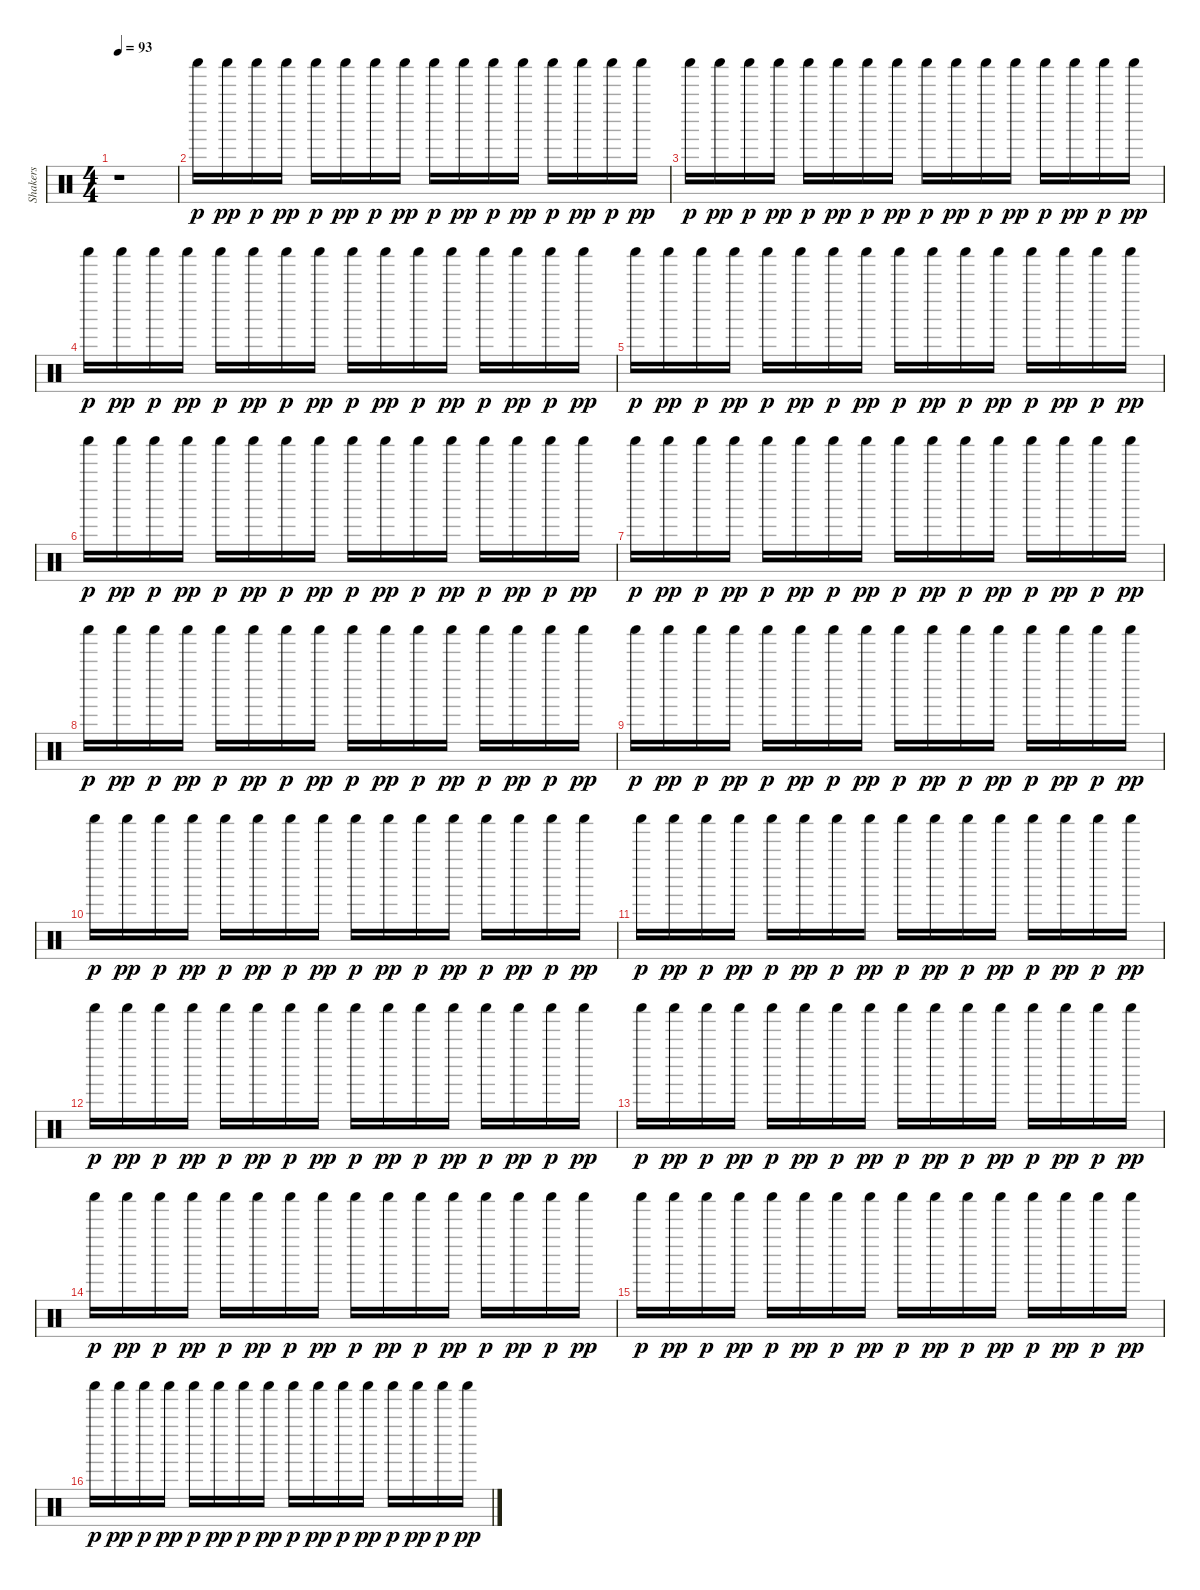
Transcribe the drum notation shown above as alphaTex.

\track ("Shakers" "Shakers") {instrument percussion}
\staff {score}
\articulation defaults
\ts (4 4)
\tempo 93
\clef neutral
\ks c
r.1{dy p} |
"Shaker (hit)".16 "Shaker (hit)".16{dy pp} "Shaker (hit)".16{dy p} "Shaker (hit)".16{dy pp} "Shaker (hit)".16{dy p} "Shaker (hit)".16{dy pp} "Shaker (hit)".16{dy p} "Shaker (hit)".16{dy pp} "Shaker (hit)".16{dy p} "Shaker (hit)".16{dy pp} "Shaker (hit)".16{dy p} "Shaker (hit)".16{dy pp} "Shaker (hit)".16{dy p} "Shaker (hit)".16{dy pp} "Shaker (hit)".16{dy p} "Shaker (hit)".16{dy pp} |
"Shaker (hit)".16{dy p} "Shaker (hit)".16{dy pp} "Shaker (hit)".16{dy p} "Shaker (hit)".16{dy pp} "Shaker (hit)".16{dy p} "Shaker (hit)".16{dy pp} "Shaker (hit)".16{dy p} "Shaker (hit)".16{dy pp} "Shaker (hit)".16{dy p} "Shaker (hit)".16{dy pp} "Shaker (hit)".16{dy p} "Shaker (hit)".16{dy pp} "Shaker (hit)".16{dy p} "Shaker (hit)".16{dy pp} "Shaker (hit)".16{dy p} "Shaker (hit)".16{dy pp} |
"Shaker (hit)".16{dy p} "Shaker (hit)".16{dy pp} "Shaker (hit)".16{dy p} "Shaker (hit)".16{dy pp} "Shaker (hit)".16{dy p} "Shaker (hit)".16{dy pp} "Shaker (hit)".16{dy p} "Shaker (hit)".16{dy pp} "Shaker (hit)".16{dy p} "Shaker (hit)".16{dy pp} "Shaker (hit)".16{dy p} "Shaker (hit)".16{dy pp} "Shaker (hit)".16{dy p} "Shaker (hit)".16{dy pp} "Shaker (hit)".16{dy p} "Shaker (hit)".16{dy pp} |
"Shaker (hit)".16{dy p} "Shaker (hit)".16{dy pp} "Shaker (hit)".16{dy p} "Shaker (hit)".16{dy pp} "Shaker (hit)".16{dy p} "Shaker (hit)".16{dy pp} "Shaker (hit)".16{dy p} "Shaker (hit)".16{dy pp} "Shaker (hit)".16{dy p} "Shaker (hit)".16{dy pp} "Shaker (hit)".16{dy p} "Shaker (hit)".16{dy pp} "Shaker (hit)".16{dy p} "Shaker (hit)".16{dy pp} "Shaker (hit)".16{dy p} "Shaker (hit)".16{dy pp} |
"Shaker (hit)".16{dy p} "Shaker (hit)".16{dy pp} "Shaker (hit)".16{dy p} "Shaker (hit)".16{dy pp} "Shaker (hit)".16{dy p} "Shaker (hit)".16{dy pp} "Shaker (hit)".16{dy p} "Shaker (hit)".16{dy pp} "Shaker (hit)".16{dy p} "Shaker (hit)".16{dy pp} "Shaker (hit)".16{dy p} "Shaker (hit)".16{dy pp} "Shaker (hit)".16{dy p} "Shaker (hit)".16{dy pp} "Shaker (hit)".16{dy p} "Shaker (hit)".16{dy pp} |
"Shaker (hit)".16{dy p} "Shaker (hit)".16{dy pp} "Shaker (hit)".16{dy p} "Shaker (hit)".16{dy pp} "Shaker (hit)".16{dy p} "Shaker (hit)".16{dy pp} "Shaker (hit)".16{dy p} "Shaker (hit)".16{dy pp} "Shaker (hit)".16{dy p} "Shaker (hit)".16{dy pp} "Shaker (hit)".16{dy p} "Shaker (hit)".16{dy pp} "Shaker (hit)".16{dy p} "Shaker (hit)".16{dy pp} "Shaker (hit)".16{dy p} "Shaker (hit)".16{dy pp} |
"Shaker (hit)".16{dy p} "Shaker (hit)".16{dy pp} "Shaker (hit)".16{dy p} "Shaker (hit)".16{dy pp} "Shaker (hit)".16{dy p} "Shaker (hit)".16{dy pp} "Shaker (hit)".16{dy p} "Shaker (hit)".16{dy pp} "Shaker (hit)".16{dy p} "Shaker (hit)".16{dy pp} "Shaker (hit)".16{dy p} "Shaker (hit)".16{dy pp} "Shaker (hit)".16{dy p} "Shaker (hit)".16{dy pp} "Shaker (hit)".16{dy p} "Shaker (hit)".16{dy pp} |
"Shaker (hit)".16{dy p} "Shaker (hit)".16{dy pp} "Shaker (hit)".16{dy p} "Shaker (hit)".16{dy pp} "Shaker (hit)".16{dy p} "Shaker (hit)".16{dy pp} "Shaker (hit)".16{dy p} "Shaker (hit)".16{dy pp} "Shaker (hit)".16{dy p} "Shaker (hit)".16{dy pp} "Shaker (hit)".16{dy p} "Shaker (hit)".16{dy pp} "Shaker (hit)".16{dy p} "Shaker (hit)".16{dy pp} "Shaker (hit)".16{dy p} "Shaker (hit)".16{dy pp} |
"Shaker (hit)".16{dy p} "Shaker (hit)".16{dy pp} "Shaker (hit)".16{dy p} "Shaker (hit)".16{dy pp} "Shaker (hit)".16{dy p} "Shaker (hit)".16{dy pp} "Shaker (hit)".16{dy p} "Shaker (hit)".16{dy pp} "Shaker (hit)".16{dy p} "Shaker (hit)".16{dy pp} "Shaker (hit)".16{dy p} "Shaker (hit)".16{dy pp} "Shaker (hit)".16{dy p} "Shaker (hit)".16{dy pp} "Shaker (hit)".16{dy p} "Shaker (hit)".16{dy pp} |
"Shaker (hit)".16{dy p} "Shaker (hit)".16{dy pp} "Shaker (hit)".16{dy p} "Shaker (hit)".16{dy pp} "Shaker (hit)".16{dy p} "Shaker (hit)".16{dy pp} "Shaker (hit)".16{dy p} "Shaker (hit)".16{dy pp} "Shaker (hit)".16{dy p} "Shaker (hit)".16{dy pp} "Shaker (hit)".16{dy p} "Shaker (hit)".16{dy pp} "Shaker (hit)".16{dy p} "Shaker (hit)".16{dy pp} "Shaker (hit)".16{dy p} "Shaker (hit)".16{dy pp} |
"Shaker (hit)".16{dy p} "Shaker (hit)".16{dy pp} "Shaker (hit)".16{dy p} "Shaker (hit)".16{dy pp} "Shaker (hit)".16{dy p} "Shaker (hit)".16{dy pp} "Shaker (hit)".16{dy p} "Shaker (hit)".16{dy pp} "Shaker (hit)".16{dy p} "Shaker (hit)".16{dy pp} "Shaker (hit)".16{dy p} "Shaker (hit)".16{dy pp} "Shaker (hit)".16{dy p} "Shaker (hit)".16{dy pp} "Shaker (hit)".16{dy p} "Shaker (hit)".16{dy pp} |
"Shaker (hit)".16{dy p} "Shaker (hit)".16{dy pp} "Shaker (hit)".16{dy p} "Shaker (hit)".16{dy pp} "Shaker (hit)".16{dy p} "Shaker (hit)".16{dy pp} "Shaker (hit)".16{dy p} "Shaker (hit)".16{dy pp} "Shaker (hit)".16{dy p} "Shaker (hit)".16{dy pp} "Shaker (hit)".16{dy p} "Shaker (hit)".16{dy pp} "Shaker (hit)".16{dy p} "Shaker (hit)".16{dy pp} "Shaker (hit)".16{dy p} "Shaker (hit)".16{dy pp} |
"Shaker (hit)".16{dy p} "Shaker (hit)".16{dy pp} "Shaker (hit)".16{dy p} "Shaker (hit)".16{dy pp} "Shaker (hit)".16{dy p} "Shaker (hit)".16{dy pp} "Shaker (hit)".16{dy p} "Shaker (hit)".16{dy pp} "Shaker (hit)".16{dy p} "Shaker (hit)".16{dy pp} "Shaker (hit)".16{dy p} "Shaker (hit)".16{dy pp} "Shaker (hit)".16{dy p} "Shaker (hit)".16{dy pp} "Shaker (hit)".16{dy p} "Shaker (hit)".16{dy pp} |
"Shaker (hit)".16{dy p} "Shaker (hit)".16{dy pp} "Shaker (hit)".16{dy p} "Shaker (hit)".16{dy pp} "Shaker (hit)".16{dy p} "Shaker (hit)".16{dy pp} "Shaker (hit)".16{dy p} "Shaker (hit)".16{dy pp} "Shaker (hit)".16{dy p} "Shaker (hit)".16{dy pp} "Shaker (hit)".16{dy p} "Shaker (hit)".16{dy pp} "Shaker (hit)".16{dy p} "Shaker (hit)".16{dy pp} "Shaker (hit)".16{dy p} "Shaker (hit)".16{dy pp} |
"Shaker (hit)".16{dy p} "Shaker (hit)".16{dy pp} "Shaker (hit)".16{dy p} "Shaker (hit)".16{dy pp} "Shaker (hit)".16{dy p} "Shaker (hit)".16{dy pp} "Shaker (hit)".16{dy p} "Shaker (hit)".16{dy pp} "Shaker (hit)".16{dy p} "Shaker (hit)".16{dy pp} "Shaker (hit)".16{dy p} "Shaker (hit)".16{dy pp} "Shaker (hit)".16{dy p} "Shaker (hit)".16{dy pp} "Shaker (hit)".16{dy p} "Shaker (hit)".16{dy pp}
